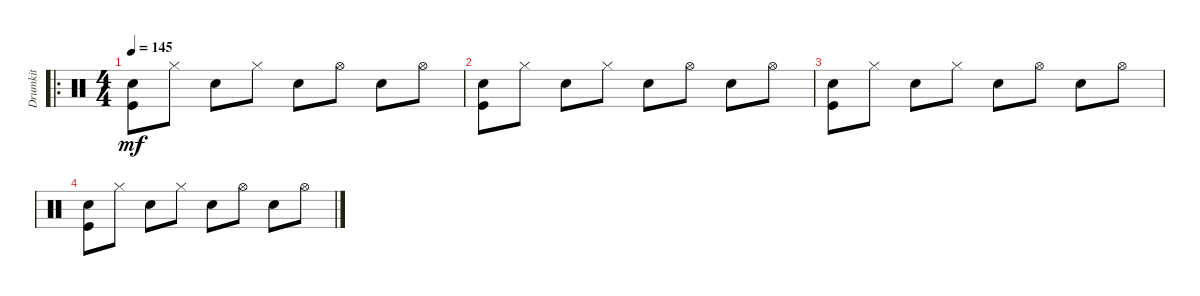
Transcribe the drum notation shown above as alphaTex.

\track ("Drumkit" "Drumkit") {instrument percussion}
\staff {score}
\articulation defaults
\ro
\ts (4 4)
\tempo 145
\clef neutral
\ks c
("Snare (hit) 2" "Kick (hit)").8{dy mf} "Hi-Hat (closed)".8 "Snare (hit) 2".8 "Hi-Hat (closed)".8 "Snare (hit) 2".8 "Hi-Hat (open)".8 "Snare (hit) 2".8 "Hi-Hat (open)".8 |
("Snare (hit) 2" "Kick (hit)").8 "Hi-Hat (closed)".8 "Snare (hit) 2".8 "Hi-Hat (closed)".8 "Snare (hit) 2".8 "Hi-Hat (open)".8 "Snare (hit) 2".8 "Hi-Hat (open)".8 |
("Snare (hit) 2" "Kick (hit)").8 "Hi-Hat (closed)".8 "Snare (hit) 2".8 "Hi-Hat (closed)".8 "Snare (hit) 2".8 "Hi-Hat (open)".8 "Snare (hit) 2".8 "Hi-Hat (open)".8 |
("Snare (hit) 2" "Kick (hit)").8 "Hi-Hat (closed)".8 "Snare (hit) 2".8 "Hi-Hat (closed)".8 "Snare (hit) 2".8 "Hi-Hat (open)".8 "Snare (hit) 2".8 "Hi-Hat (open)".8
